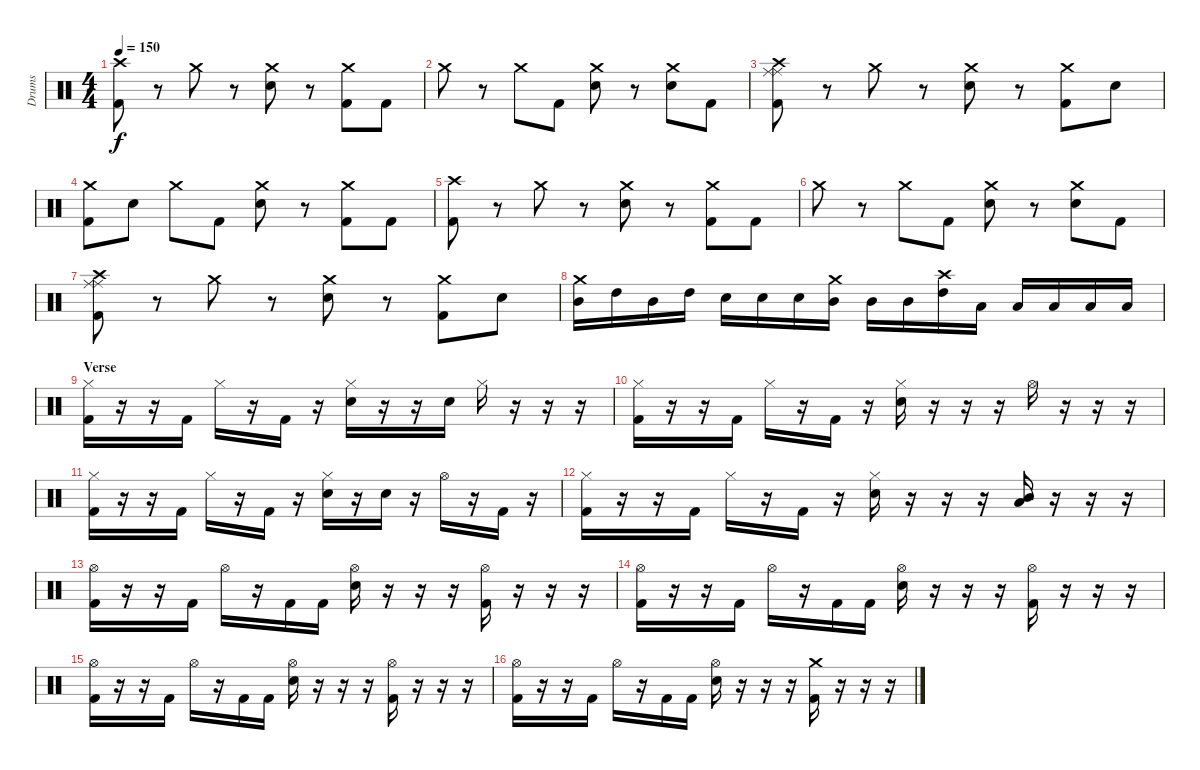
\track ("Drums" "Drums") {instrument percussion}
\staff {score}
\articulation defaults
\ts (4 4)
\tempo 150
\clef neutral
\ks c
("Crash high (hit)" "Kick (hit) 2").8{dy f} r.8 "Crash medium (hit)".8 r.8 ("Crash medium (hit)" "Electric Snare (hit)").8 r.8 ("Crash medium (hit)" "Kick (hit) 2").8 "Kick (hit) 2".8 |
"Crash medium (hit)".8 r.8 "Crash medium (hit)".8 "Kick (hit) 2".8 ("Crash medium (hit)" "Electric Snare (hit)").8 r.8 ("Crash medium (hit)" "Electric Snare (hit)").8 "Kick (hit) 2".8 |
("Crash high (hit)" "Ride (middle)" "Ride (middle)" "Kick (hit) 2").8 r.8 "Crash medium (hit)".8 r.8 ("Crash medium (hit)" "Electric Snare (hit)").8 r.8 ("Crash medium (hit)" "Kick (hit) 2").8 "Electric Snare (hit)".8 |
("Crash medium (hit)" "Kick (hit) 2").8 "Electric Snare (hit)".8 "Crash medium (hit)".8 "Kick (hit) 2".8 ("Crash medium (hit)" "Electric Snare (hit)").8 r.8 ("Crash medium (hit)" "Kick (hit) 2").8 "Kick (hit) 2".8 |
("Crash high (hit)" "Kick (hit) 2").8 r.8 "Crash medium (hit)".8 r.8 ("Crash medium (hit)" "Electric Snare (hit)").8 r.8 ("Crash medium (hit)" "Kick (hit) 2").8 "Kick (hit) 2".8 |
"Crash medium (hit)".8 r.8 "Crash medium (hit)".8 "Kick (hit) 2".8 ("Crash medium (hit)" "Electric Snare (hit)").8 r.8 ("Crash medium (hit)" "Electric Snare (hit)").8 "Kick (hit) 2".8 |
("Crash high (hit)" "Ride (middle)" "Ride (middle)" "Kick (hit) 2").8 r.8 "Crash medium (hit)".8 r.8 ("Crash medium (hit)" "Electric Snare (hit)").8 r.8 ("Crash medium (hit)" "Kick (hit) 2").8 "Electric Snare (hit)".8 |
("Crash medium (hit)" "Mid Tom (hit)").16 "High Tom (hit)".16 "Mid Tom (hit)".16 "High Tom (hit)".16 "Electric Snare (hit)".16 "Electric Snare (hit)".16 "Electric Snare (hit)".16 ("Crash medium (hit)" "Mid Tom (hit)").16 "Mid Tom (hit)".16 "Mid Tom (hit)".16 ("Crash high (hit)" "High Tom (hit)").16 "Low Floor Tom (hit)".16 "Low Floor Tom (hit)".16 "Low Floor Tom (hit)".16 "Low Floor Tom (hit)".16 "Low Floor Tom (hit)".16 |
\section ("" "Verse")
("Hi-Hat (closed)" "Kick (hit) 2").16 r.16 r.16 "Kick (hit) 2".16 "Hi-Hat (closed)".16 r.16 "Kick (hit) 2".16 r.16 ("Hi-Hat (closed)" "Electric Snare (hit)").16 r.16 r.16 "Electric Snare (hit)".16 "Hi-Hat (closed)".16 r.16 r.16 r.16 |
("Hi-Hat (closed)" "Kick (hit) 2").16 r.16 r.16 "Kick (hit) 2".16 "Hi-Hat (closed)".16 r.16 "Kick (hit) 2".16 r.16 ("Hi-Hat (closed)" "Electric Snare (hit)").16 r.16 r.16 r.16 "Hi-Hat (open)".16 r.16 r.16 r.16 |
("Hi-Hat (closed)" "Kick (hit) 2").16 r.16 r.16 "Kick (hit) 2".16 "Hi-Hat (closed)".16 r.16 "Kick (hit) 2".16 r.16 ("Hi-Hat (closed)" "Electric Snare (hit)").16 r.16 "Electric Snare (hit)".16 r.16 "Hi-Hat (open)".16 r.16 "Kick (hit) 2".16 r.16 |
("Hi-Hat (closed)" "Kick (hit) 2").16 r.16 r.16 "Kick (hit) 2".16 "Hi-Hat (closed)".16 r.16 "Kick (hit) 2".16 r.16 ("Hi-Hat (closed)" "Electric Snare (hit)").16 r.16 r.16 r.16 ("Mid Tom (hit)" "Low Floor Tom (hit)").16 r.16 r.16 r.16 |
("Hi-Hat (open)" "Kick (hit) 2").16 r.16 r.16 "Kick (hit) 2".16 "Hi-Hat (open)".16 r.16 "Kick (hit) 2".16 "Kick (hit) 2".16 ("Hi-Hat (open)" "Electric Snare (hit)").16 r.16 r.16 r.16 ("Hi-Hat (open)" "Kick (hit) 2").16 r.16 r.16 r.16 |
("Hi-Hat (open)" "Kick (hit) 2").16 r.16 r.16 "Kick (hit) 2".16 "Hi-Hat (open)".16 r.16 "Kick (hit) 2".16 "Kick (hit) 2".16 ("Hi-Hat (open)" "Electric Snare (hit)").16 r.16 r.16 r.16 ("Hi-Hat (open)" "Kick (hit) 2").16 r.16 r.16 r.16 |
("Hi-Hat (open)" "Kick (hit) 2").16 r.16 r.16 "Kick (hit) 2".16 "Hi-Hat (open)".16 r.16 "Kick (hit) 2".16 "Kick (hit) 2".16 ("Hi-Hat (open)" "Electric Snare (hit)").16 r.16 r.16 r.16 ("Hi-Hat (open)" "Kick (hit) 2").16 r.16 r.16 r.16 |
("Hi-Hat (open)" "Kick (hit) 2").16 r.16 r.16 "Kick (hit) 2".16 "Hi-Hat (open)".16 r.16 "Kick (hit) 2".16 "Kick (hit) 2".16 ("Hi-Hat (open)" "Electric Snare (hit)").16 r.16 r.16 r.16 ("Crash medium (hit)" "Kick (hit) 2").16 r.16 r.16 r.16
